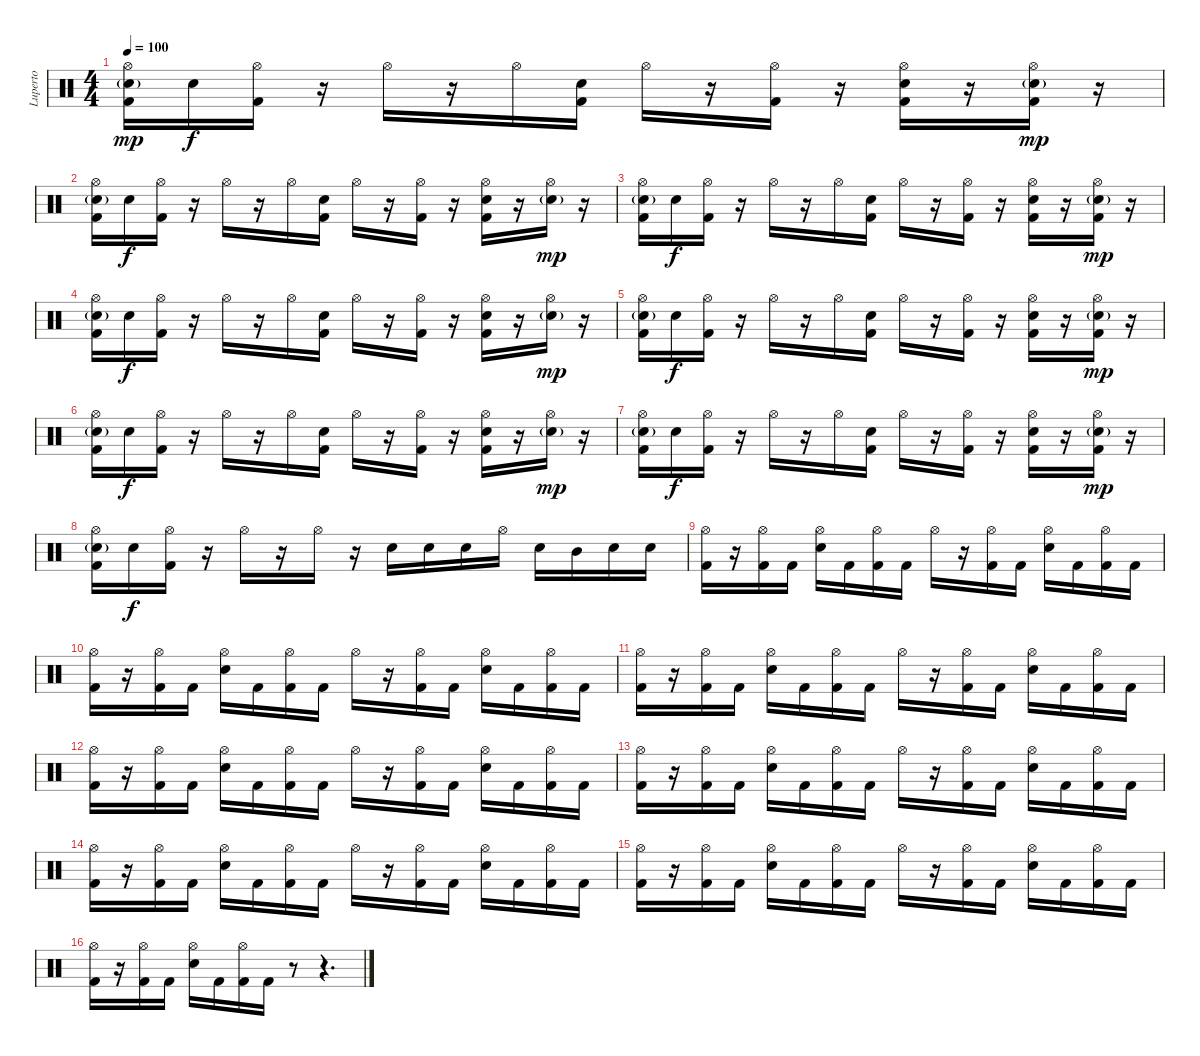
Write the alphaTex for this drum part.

\track ("Luperto" "Luperto") {instrument percussion}
\staff {score}
\articulation defaults
\ts (4 4)
\tempo 100
\clef neutral
\ks c
("Hi-Hat (open)" "Snare (hit) 2"{g} "Kick (hit) 2").16{dy mp} "Snare (hit) 2".16{dy f} ("Hi-Hat (open)" "Kick (hit) 2").16 r.16 "Hi-Hat (open)".16 r.16 "Hi-Hat (open)".16 ("Snare (hit) 2" "Kick (hit) 2").16 "Hi-Hat (open)".16 r.16 ("Hi-Hat (open)" "Kick (hit) 2").16 r.16 ("Hi-Hat (open)" "Snare (hit) 2" "Kick (hit) 2").16 r.16 ("Hi-Hat (open)" "Snare (hit) 2"{g} "Kick (hit) 2").16{dy mp} r.16 |
("Hi-Hat (open)" "Snare (hit) 2"{g} "Kick (hit) 2").16 "Snare (hit) 2".16{dy f} ("Hi-Hat (open)" "Kick (hit) 2").16 r.16 "Hi-Hat (open)".16 r.16 "Hi-Hat (open)".16 ("Snare (hit) 2" "Kick (hit) 2").16 "Hi-Hat (open)".16 r.16 ("Hi-Hat (open)" "Kick (hit) 2").16 r.16 ("Hi-Hat (open)" "Snare (hit) 2" "Kick (hit) 2").16 r.16 ("Hi-Hat (open)" "Snare (hit) 2"{g}).16{dy mp} r.16 |
("Hi-Hat (open)" "Snare (hit) 2"{g} "Kick (hit) 2").16 "Snare (hit) 2".16{dy f} ("Hi-Hat (open)" "Kick (hit) 2").16 r.16 "Hi-Hat (open)".16 r.16 "Hi-Hat (open)".16 ("Snare (hit) 2" "Kick (hit) 2").16 "Hi-Hat (open)".16 r.16 ("Hi-Hat (open)" "Kick (hit) 2").16 r.16 ("Hi-Hat (open)" "Snare (hit) 2" "Kick (hit) 2").16 r.16 ("Hi-Hat (open)" "Snare (hit) 2"{g} "Kick (hit) 2").16{dy mp} r.16 |
("Hi-Hat (open)" "Snare (hit) 2"{g} "Kick (hit) 2").16 "Snare (hit) 2".16{dy f} ("Hi-Hat (open)" "Kick (hit) 2").16 r.16 "Hi-Hat (open)".16 r.16 "Hi-Hat (open)".16 ("Snare (hit) 2" "Kick (hit) 2").16 "Hi-Hat (open)".16 r.16 ("Hi-Hat (open)" "Kick (hit) 2").16 r.16 ("Hi-Hat (open)" "Snare (hit) 2" "Kick (hit) 2").16 r.16 ("Hi-Hat (open)" "Snare (hit) 2"{g}).16{dy mp} r.16 |
("Hi-Hat (open)" "Snare (hit) 2"{g} "Kick (hit) 2").16 "Snare (hit) 2".16{dy f} ("Hi-Hat (open)" "Kick (hit) 2").16 r.16 "Hi-Hat (open)".16 r.16 "Hi-Hat (open)".16 ("Snare (hit) 2" "Kick (hit) 2").16 "Hi-Hat (open)".16 r.16 ("Hi-Hat (open)" "Kick (hit) 2").16 r.16 ("Hi-Hat (open)" "Snare (hit) 2" "Kick (hit) 2").16 r.16 ("Hi-Hat (open)" "Snare (hit) 2"{g} "Kick (hit) 2").16{dy mp} r.16 |
("Hi-Hat (open)" "Snare (hit) 2"{g} "Kick (hit) 2").16 "Snare (hit) 2".16{dy f} ("Hi-Hat (open)" "Kick (hit) 2").16 r.16 "Hi-Hat (open)".16 r.16 "Hi-Hat (open)".16 ("Snare (hit) 2" "Kick (hit) 2").16 "Hi-Hat (open)".16 r.16 ("Hi-Hat (open)" "Kick (hit) 2").16 r.16 ("Hi-Hat (open)" "Snare (hit) 2" "Kick (hit) 2").16 r.16 ("Hi-Hat (open)" "Snare (hit) 2"{g}).16{dy mp} r.16 |
("Hi-Hat (open)" "Snare (hit) 2"{g} "Kick (hit) 2").16 "Snare (hit) 2".16{dy f} ("Hi-Hat (open)" "Kick (hit) 2").16 r.16 "Hi-Hat (open)".16 r.16 "Hi-Hat (open)".16 ("Snare (hit) 2" "Kick (hit) 2").16 "Hi-Hat (open)".16 r.16 ("Hi-Hat (open)" "Kick (hit) 2").16 r.16 ("Hi-Hat (open)" "Snare (hit) 2" "Kick (hit) 2").16 r.16 ("Hi-Hat (open)" "Snare (hit) 2"{g} "Kick (hit) 2").16{dy mp} r.16 |
("Hi-Hat (open)" "Snare (hit) 2"{g} "Kick (hit) 2").16 "Snare (hit) 2".16{dy f} ("Hi-Hat (open)" "Kick (hit) 2").16 r.16 "Hi-Hat (open)".16 r.16 "Hi-Hat (open)".16 r.16 "Snare (hit) 2".16 "Snare (hit) 2".16 "Snare (hit) 2".16 "Hi-Hat (open)".16 "Snare (hit) 2".16 "Mid Tom (hit)".16 "Snare (hit) 2".16 "Snare (hit) 2".16 |
("Hi-Hat (open)" "Kick (hit) 2").16 r.16 ("Hi-Hat (open)" "Kick (hit) 2").16 "Kick (hit) 2".16 ("Hi-Hat (open)" "Snare (hit) 2").16 "Kick (hit) 2".16 ("Hi-Hat (open)" "Kick (hit) 2").16 "Kick (hit) 2".16 "Hi-Hat (open)".16 r.16 ("Hi-Hat (open)" "Kick (hit) 2").16 "Kick (hit) 2".16 ("Hi-Hat (open)" "Snare (hit) 2").16 "Kick (hit) 2".16 ("Hi-Hat (open)" "Kick (hit) 2").16 "Kick (hit) 2".16 |
("Hi-Hat (open)" "Kick (hit) 2").16 r.16 ("Hi-Hat (open)" "Kick (hit) 2").16 "Kick (hit) 2".16 ("Hi-Hat (open)" "Snare (hit) 2").16 "Kick (hit) 2".16 ("Hi-Hat (open)" "Kick (hit) 2").16 "Kick (hit) 2".16 "Hi-Hat (open)".16 r.16 ("Hi-Hat (open)" "Kick (hit) 2").16 "Kick (hit) 2".16 ("Hi-Hat (open)" "Snare (hit) 2").16 "Kick (hit) 2".16 ("Hi-Hat (open)" "Kick (hit) 2").16 "Kick (hit) 2".16 |
("Hi-Hat (open)" "Kick (hit) 2").16 r.16 ("Hi-Hat (open)" "Kick (hit) 2").16 "Kick (hit) 2".16 ("Hi-Hat (open)" "Snare (hit) 2").16 "Kick (hit) 2".16 ("Hi-Hat (open)" "Kick (hit) 2").16 "Kick (hit) 2".16 "Hi-Hat (open)".16 r.16 ("Hi-Hat (open)" "Kick (hit) 2").16 "Kick (hit) 2".16 ("Hi-Hat (open)" "Snare (hit) 2").16 "Kick (hit) 2".16 ("Hi-Hat (open)" "Kick (hit) 2").16 "Kick (hit) 2".16 |
("Hi-Hat (open)" "Kick (hit) 2").16 r.16 ("Hi-Hat (open)" "Kick (hit) 2").16 "Kick (hit) 2".16 ("Hi-Hat (open)" "Snare (hit) 2").16 "Kick (hit) 2".16 ("Hi-Hat (open)" "Kick (hit) 2").16 "Kick (hit) 2".16 "Hi-Hat (open)".16 r.16 ("Hi-Hat (open)" "Kick (hit) 2").16 "Kick (hit) 2".16 ("Hi-Hat (open)" "Snare (hit) 2").16 "Kick (hit) 2".16 ("Hi-Hat (open)" "Kick (hit) 2").16 "Kick (hit) 2".16 |
("Hi-Hat (open)" "Kick (hit) 2").16 r.16 ("Hi-Hat (open)" "Kick (hit) 2").16 "Kick (hit) 2".16 ("Hi-Hat (open)" "Snare (hit) 2").16 "Kick (hit) 2".16 ("Hi-Hat (open)" "Kick (hit) 2").16 "Kick (hit) 2".16 "Hi-Hat (open)".16 r.16 ("Hi-Hat (open)" "Kick (hit) 2").16 "Kick (hit) 2".16 ("Hi-Hat (open)" "Snare (hit) 2").16 "Kick (hit) 2".16 ("Hi-Hat (open)" "Kick (hit) 2").16 "Kick (hit) 2".16 |
("Hi-Hat (open)" "Kick (hit) 2").16 r.16 ("Hi-Hat (open)" "Kick (hit) 2").16 "Kick (hit) 2".16 ("Hi-Hat (open)" "Snare (hit) 2").16 "Kick (hit) 2".16 ("Hi-Hat (open)" "Kick (hit) 2").16 "Kick (hit) 2".16 "Hi-Hat (open)".16 r.16 ("Hi-Hat (open)" "Kick (hit) 2").16 "Kick (hit) 2".16 ("Hi-Hat (open)" "Snare (hit) 2").16 "Kick (hit) 2".16 ("Hi-Hat (open)" "Kick (hit) 2").16 "Kick (hit) 2".16 |
("Hi-Hat (open)" "Kick (hit) 2").16 r.16 ("Hi-Hat (open)" "Kick (hit) 2").16 "Kick (hit) 2".16 ("Hi-Hat (open)" "Snare (hit) 2").16 "Kick (hit) 2".16 ("Hi-Hat (open)" "Kick (hit) 2").16 "Kick (hit) 2".16 "Hi-Hat (open)".16 r.16 ("Hi-Hat (open)" "Kick (hit) 2").16 "Kick (hit) 2".16 ("Hi-Hat (open)" "Snare (hit) 2").16 "Kick (hit) 2".16 ("Hi-Hat (open)" "Kick (hit) 2").16 "Kick (hit) 2".16 |
("Hi-Hat (open)" "Kick (hit) 2").16 r.16 ("Hi-Hat (open)" "Kick (hit) 2").16 "Kick (hit) 2".16 ("Hi-Hat (open)" "Snare (hit) 2").16 "Kick (hit) 2".16 ("Hi-Hat (open)" "Kick (hit) 2").16 "Kick (hit) 2".16 r.8 r.4{d}
